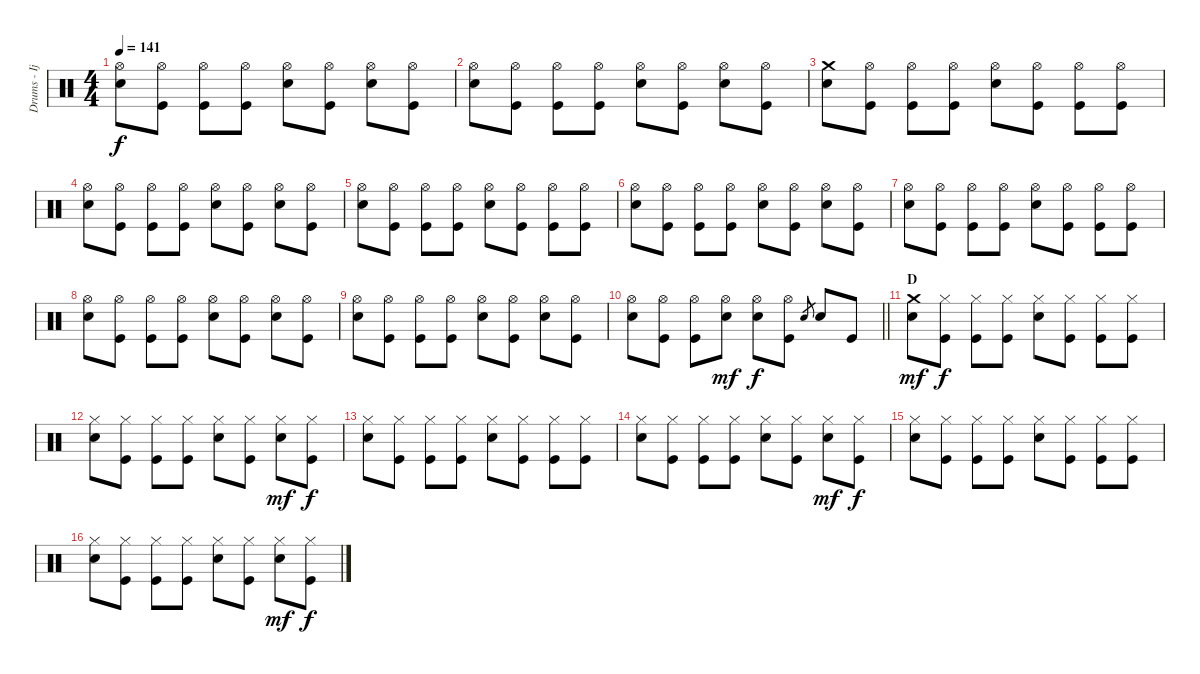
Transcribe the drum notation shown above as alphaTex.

\track ("Drums - Ijichi" "Drums - Ij") {instrument percussion}
\staff {score}
\articulation defaults
\ts (4 4)
\tempo 141
\clef neutral
\ks c
("Hi-Hat (open)" "Electric Snare (hit)").8{dy f} ("Hi-Hat (open)" "Kick (hit)").8 ("Hi-Hat (open)" "Kick (hit)").8 ("Hi-Hat (open)" "Kick (hit)").8 ("Hi-Hat (open)" "Electric Snare (hit)").8 ("Hi-Hat (open)" "Kick (hit)").8 ("Hi-Hat (open)" "Electric Snare (hit)").8 ("Hi-Hat (open)" "Kick (hit)").8 |
("Hi-Hat (open)" "Electric Snare (hit)").8 ("Hi-Hat (open)" "Kick (hit)").8 ("Hi-Hat (open)" "Kick (hit)").8 ("Hi-Hat (open)" "Kick (hit)").8 ("Hi-Hat (open)" "Electric Snare (hit)").8 ("Hi-Hat (open)" "Kick (hit)").8 ("Hi-Hat (open)" "Electric Snare (hit)").8 ("Hi-Hat (open)" "Kick (hit)").8 |
("Crash medium (hit)" "Electric Snare (hit)").8 ("Hi-Hat (open)" "Kick (hit)").8 ("Hi-Hat (open)" "Kick (hit)").8 ("Hi-Hat (open)" "Kick (hit)").8 ("Hi-Hat (open)" "Electric Snare (hit)").8 ("Hi-Hat (open)" "Kick (hit)").8 ("Hi-Hat (open)" "Kick (hit)").8 ("Hi-Hat (open)" "Kick (hit)").8 |
("Hi-Hat (open)" "Electric Snare (hit)").8 ("Hi-Hat (open)" "Kick (hit)").8 ("Hi-Hat (open)" "Kick (hit)").8 ("Hi-Hat (open)" "Kick (hit)").8 ("Hi-Hat (open)" "Electric Snare (hit)").8 ("Hi-Hat (open)" "Kick (hit)").8 ("Hi-Hat (open)" "Electric Snare (hit)").8 ("Hi-Hat (open)" "Kick (hit)").8 |
("Hi-Hat (open)" "Electric Snare (hit)").8 ("Hi-Hat (open)" "Kick (hit)").8 ("Hi-Hat (open)" "Kick (hit)").8 ("Hi-Hat (open)" "Kick (hit)").8 ("Hi-Hat (open)" "Electric Snare (hit)").8 ("Hi-Hat (open)" "Kick (hit)").8 ("Hi-Hat (open)" "Kick (hit)").8 ("Hi-Hat (open)" "Kick (hit)").8 |
("Hi-Hat (open)" "Electric Snare (hit)").8 ("Hi-Hat (open)" "Kick (hit)").8 ("Hi-Hat (open)" "Kick (hit)").8 ("Hi-Hat (open)" "Kick (hit)").8 ("Hi-Hat (open)" "Electric Snare (hit)").8 ("Hi-Hat (open)" "Kick (hit)").8 ("Hi-Hat (open)" "Electric Snare (hit)").8 ("Hi-Hat (open)" "Kick (hit)").8 |
("Hi-Hat (open)" "Electric Snare (hit)").8 ("Hi-Hat (open)" "Kick (hit)").8 ("Hi-Hat (open)" "Kick (hit)").8 ("Hi-Hat (open)" "Kick (hit)").8 ("Hi-Hat (open)" "Electric Snare (hit)").8 ("Hi-Hat (open)" "Kick (hit)").8 ("Hi-Hat (open)" "Kick (hit)").8 ("Hi-Hat (open)" "Kick (hit)").8 |
("Hi-Hat (open)" "Electric Snare (hit)").8 ("Hi-Hat (open)" "Kick (hit)").8 ("Hi-Hat (open)" "Kick (hit)").8 ("Hi-Hat (open)" "Kick (hit)").8 ("Hi-Hat (open)" "Electric Snare (hit)").8 ("Hi-Hat (open)" "Kick (hit)").8 ("Hi-Hat (open)" "Electric Snare (hit)").8 ("Hi-Hat (open)" "Kick (hit)").8 |
("Hi-Hat (open)" "Electric Snare (hit)").8 ("Hi-Hat (open)" "Kick (hit)").8 ("Hi-Hat (open)" "Kick (hit)").8 ("Hi-Hat (open)" "Kick (hit)").8 ("Hi-Hat (open)" "Electric Snare (hit)").8 ("Hi-Hat (open)" "Kick (hit)").8 ("Hi-Hat (open)" "Electric Snare (hit)").8 ("Hi-Hat (open)" "Kick (hit)").8 |
\barLineRight lightlight
("Hi-Hat (open)" "Electric Snare (hit)").8 ("Hi-Hat (open)" "Kick (hit)").8 ("Hi-Hat (open)" "Kick (hit)").8 ("Hi-Hat (open)" "Electric Snare (hit)").8{dy mf} ("Hi-Hat (open)" "Electric Snare (hit)").8{dy f} ("Hi-Hat (open)" "Kick (hit)").8 "Electric Snare (hit)".8{gr} "Electric Snare (hit)".8 "Kick (hit)".8 |
\section ("" "D")
("Crash medium (hit)" "Electric Snare (hit)").8{dy mf} ("Hi-Hat (closed)" "Kick (hit)").8{dy f} ("Hi-Hat (closed)" "Kick (hit)").8 ("Hi-Hat (closed)" "Kick (hit)").8 ("Hi-Hat (closed)" "Electric Snare (hit)").8 ("Hi-Hat (closed)" "Kick (hit)").8 ("Hi-Hat (closed)" "Kick (hit)").8 ("Hi-Hat (closed)" "Kick (hit)").8 |
("Hi-Hat (closed)" "Electric Snare (hit)").8 ("Hi-Hat (closed)" "Kick (hit)").8 ("Hi-Hat (closed)" "Kick (hit)").8 ("Hi-Hat (closed)" "Kick (hit)").8 ("Hi-Hat (closed)" "Electric Snare (hit)").8 ("Hi-Hat (closed)" "Kick (hit)").8 ("Hi-Hat (closed)" "Electric Snare (hit)").8{dy mf} ("Hi-Hat (closed)" "Kick (hit)").8{dy f} |
("Hi-Hat (closed)" "Electric Snare (hit)").8 ("Hi-Hat (closed)" "Kick (hit)").8 ("Hi-Hat (closed)" "Kick (hit)").8 ("Hi-Hat (closed)" "Kick (hit)").8 ("Hi-Hat (closed)" "Electric Snare (hit)").8 ("Hi-Hat (closed)" "Kick (hit)").8 ("Hi-Hat (closed)" "Kick (hit)").8 ("Hi-Hat (closed)" "Kick (hit)").8 |
("Hi-Hat (closed)" "Electric Snare (hit)").8 ("Hi-Hat (closed)" "Kick (hit)").8 ("Hi-Hat (closed)" "Kick (hit)").8 ("Hi-Hat (closed)" "Kick (hit)").8 ("Hi-Hat (closed)" "Electric Snare (hit)").8 ("Hi-Hat (closed)" "Kick (hit)").8 ("Hi-Hat (closed)" "Electric Snare (hit)").8{dy mf} ("Hi-Hat (closed)" "Kick (hit)").8{dy f} |
("Hi-Hat (closed)" "Electric Snare (hit)").8 ("Hi-Hat (closed)" "Kick (hit)").8 ("Hi-Hat (closed)" "Kick (hit)").8 ("Hi-Hat (closed)" "Kick (hit)").8 ("Hi-Hat (closed)" "Electric Snare (hit)").8 ("Hi-Hat (closed)" "Kick (hit)").8 ("Hi-Hat (closed)" "Kick (hit)").8 ("Hi-Hat (closed)" "Kick (hit)").8 |
("Hi-Hat (closed)" "Electric Snare (hit)").8 ("Hi-Hat (closed)" "Kick (hit)").8 ("Hi-Hat (closed)" "Kick (hit)").8 ("Hi-Hat (closed)" "Kick (hit)").8 ("Hi-Hat (closed)" "Electric Snare (hit)").8 ("Hi-Hat (closed)" "Kick (hit)").8 ("Hi-Hat (closed)" "Electric Snare (hit)").8{dy mf} ("Hi-Hat (closed)" "Kick (hit)").8{dy f}
